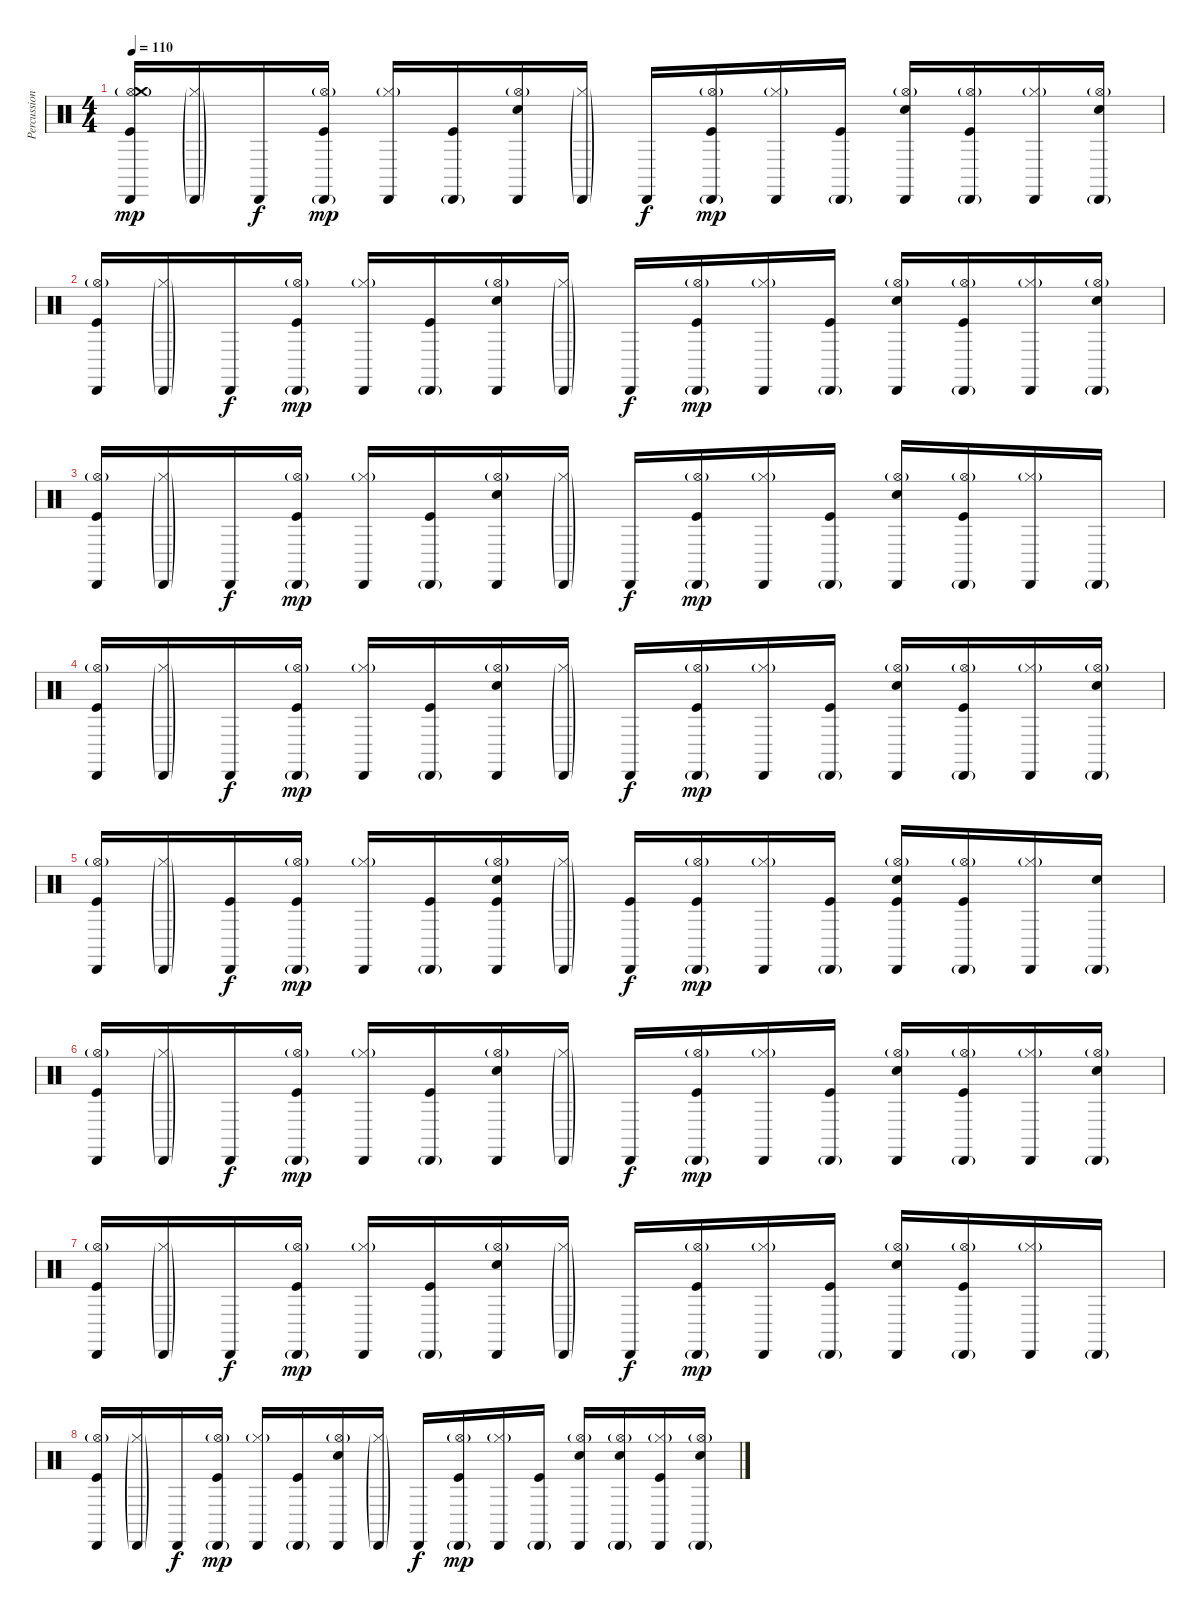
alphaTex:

\track ("Percussion" "Percussion") {instrument percussion}
\staff {score}
\articulation defaults
\ts (4 4)
\tempo 110
\clef neutral
\ks c
("Cabasa (hit)" "Hi-Hat (open)"{g} "Crash medium (hit)" "Kick (hit)").16{dy mp} ("Cabasa (hit)"{g} "Hi-Hat (closed)"{g}).16 "Cabasa (hit)".16{dy f} ("Cabasa (hit)"{g} "Hi-Hat (open)"{g} "Kick (hit)").16{dy mp} ("Cabasa (hit)" "Hi-Hat (closed)"{g}).16 ("Cabasa (hit)"{g} "Kick (hit)").16 ("Cabasa (hit)" "Hi-Hat (open)"{g} "Snare (hit) 2").16 ("Cabasa (hit)"{g} "Hi-Hat (closed)"{g}).16 "Cabasa (hit)".16{dy f} ("Cabasa (hit)"{g} "Hi-Hat (open)"{g} "Kick (hit)").16{dy mp} ("Cabasa (hit)" "Hi-Hat (closed)"{g}).16 ("Cabasa (hit)"{g} "Kick (hit)").16 ("Cabasa (hit)" "Hi-Hat (open)"{g} "Snare (hit) 2").16 ("Cabasa (hit)"{g} "Hi-Hat (open)"{g} "Kick (hit)").16 ("Cabasa (hit)" "Hi-Hat (closed)"{g}).16 ("Cabasa (hit)"{g} "Hi-Hat (open)"{g} "Snare (hit) 2").16 |
("Cabasa (hit)" "Hi-Hat (open)"{g} "Kick (hit)").16 ("Cabasa (hit)"{g} "Hi-Hat (closed)"{g}).16 "Cabasa (hit)".16{dy f} ("Cabasa (hit)"{g} "Hi-Hat (open)"{g} "Kick (hit)").16{dy mp} ("Cabasa (hit)" "Hi-Hat (closed)"{g}).16 ("Cabasa (hit)"{g} "Kick (hit)").16 ("Cabasa (hit)" "Hi-Hat (open)"{g} "Snare (hit) 2").16 ("Cabasa (hit)"{g} "Hi-Hat (closed)"{g}).16 "Cabasa (hit)".16{dy f} ("Cabasa (hit)"{g} "Hi-Hat (open)"{g} "Kick (hit)").16{dy mp} ("Cabasa (hit)" "Hi-Hat (closed)"{g}).16 ("Cabasa (hit)"{g} "Kick (hit)").16 ("Cabasa (hit)" "Hi-Hat (open)"{g} "Snare (hit) 2").16 ("Cabasa (hit)"{g} "Hi-Hat (open)"{g} "Kick (hit)").16 ("Cabasa (hit)" "Hi-Hat (closed)"{g}).16 ("Cabasa (hit)"{g} "Hi-Hat (open)"{g} "Snare (hit) 2").16 |
("Cabasa (hit)" "Hi-Hat (open)"{g} "Kick (hit)").16 ("Cabasa (hit)"{g} "Hi-Hat (closed)"{g}).16 "Cabasa (hit)".16{dy f} ("Cabasa (hit)"{g} "Hi-Hat (open)"{g} "Kick (hit)").16{dy mp} ("Cabasa (hit)" "Hi-Hat (closed)"{g}).16 ("Cabasa (hit)"{g} "Kick (hit)").16 ("Cabasa (hit)" "Hi-Hat (open)"{g} "Snare (hit) 2").16 ("Cabasa (hit)"{g} "Hi-Hat (closed)"{g}).16 "Cabasa (hit)".16{dy f} ("Cabasa (hit)"{g} "Hi-Hat (open)"{g} "Kick (hit)").16{dy mp} ("Cabasa (hit)" "Hi-Hat (closed)"{g}).16 ("Cabasa (hit)"{g} "Kick (hit)").16 ("Cabasa (hit)" "Hi-Hat (open)"{g} "Snare (hit) 2").16 ("Cabasa (hit)"{g} "Hi-Hat (open)"{g} "Kick (hit)").16 ("Cabasa (hit)" "Hi-Hat (closed)"{g}).16 "Cabasa (hit)"{g}.16 |
("Cabasa (hit)" "Hi-Hat (open)"{g} "Kick (hit)").16 ("Cabasa (hit)"{g} "Hi-Hat (closed)"{g}).16 "Cabasa (hit)".16{dy f} ("Cabasa (hit)"{g} "Hi-Hat (open)"{g} "Kick (hit)").16{dy mp} ("Cabasa (hit)" "Hi-Hat (closed)"{g}).16 ("Cabasa (hit)"{g} "Kick (hit)").16 ("Cabasa (hit)" "Hi-Hat (open)"{g} "Snare (hit) 2").16 ("Cabasa (hit)"{g} "Hi-Hat (closed)"{g}).16 "Cabasa (hit)".16{dy f} ("Cabasa (hit)"{g} "Hi-Hat (open)"{g} "Kick (hit)").16{dy mp} ("Cabasa (hit)" "Hi-Hat (closed)"{g}).16 ("Cabasa (hit)"{g} "Kick (hit)").16 ("Cabasa (hit)" "Hi-Hat (open)"{g} "Snare (hit) 2").16 ("Cabasa (hit)"{g} "Hi-Hat (open)"{g} "Kick (hit)").16 ("Cabasa (hit)" "Hi-Hat (closed)"{g}).16 ("Cabasa (hit)"{g} "Hi-Hat (open)"{g} "Snare (hit) 2").16 |
("Cabasa (hit)" "Hi-Hat (open)"{g} "Kick (hit)").16 ("Cabasa (hit)"{g} "Hi-Hat (closed)"{g}).16 ("Cabasa (hit)" "Kick (hit)").16{dy f} ("Cabasa (hit)"{g} "Hi-Hat (open)"{g} "Kick (hit)").16{dy mp} ("Cabasa (hit)" "Hi-Hat (closed)"{g}).16 ("Cabasa (hit)"{g} "Kick (hit)").16 ("Cabasa (hit)" "Hi-Hat (open)"{g} "Snare (hit) 2" "Kick (hit)").16 ("Cabasa (hit)"{g} "Hi-Hat (closed)"{g}).16 ("Cabasa (hit)" "Kick (hit)").16{dy f} ("Cabasa (hit)"{g} "Hi-Hat (open)"{g} "Kick (hit)").16{dy mp} ("Cabasa (hit)" "Hi-Hat (closed)"{g}).16 ("Cabasa (hit)"{g} "Kick (hit)").16 ("Cabasa (hit)" "Hi-Hat (open)"{g} "Snare (hit) 2" "Kick (hit)").16 ("Cabasa (hit)"{g} "Hi-Hat (open)"{g} "Kick (hit)").16 ("Cabasa (hit)" "Hi-Hat (closed)"{g}).16 ("Cabasa (hit)"{g} "Snare (hit) 2").16 |
("Cabasa (hit)" "Hi-Hat (open)"{g} "Kick (hit)").16 ("Cabasa (hit)"{g} "Hi-Hat (closed)"{g}).16 "Cabasa (hit)".16{dy f} ("Cabasa (hit)"{g} "Hi-Hat (open)"{g} "Kick (hit)").16{dy mp} ("Cabasa (hit)" "Hi-Hat (closed)"{g}).16 ("Cabasa (hit)"{g} "Kick (hit)").16 ("Cabasa (hit)" "Hi-Hat (open)"{g} "Snare (hit) 2").16 ("Cabasa (hit)"{g} "Hi-Hat (closed)"{g}).16 "Cabasa (hit)".16{dy f} ("Cabasa (hit)"{g} "Hi-Hat (open)"{g} "Kick (hit)").16{dy mp} ("Cabasa (hit)" "Hi-Hat (closed)"{g}).16 ("Cabasa (hit)"{g} "Kick (hit)").16 ("Cabasa (hit)" "Hi-Hat (open)"{g} "Snare (hit) 2").16 ("Cabasa (hit)"{g} "Hi-Hat (open)"{g} "Kick (hit)").16 ("Cabasa (hit)" "Hi-Hat (closed)"{g}).16 ("Cabasa (hit)"{g} "Hi-Hat (open)"{g} "Snare (hit) 2").16 |
("Cabasa (hit)" "Hi-Hat (open)"{g} "Kick (hit)").16 ("Cabasa (hit)"{g} "Hi-Hat (closed)"{g}).16 "Cabasa (hit)".16{dy f} ("Cabasa (hit)"{g} "Hi-Hat (open)"{g} "Kick (hit)").16{dy mp} ("Cabasa (hit)" "Hi-Hat (closed)"{g}).16 ("Cabasa (hit)"{g} "Kick (hit)").16 ("Cabasa (hit)" "Hi-Hat (open)"{g} "Snare (hit) 2").16 ("Cabasa (hit)"{g} "Hi-Hat (closed)"{g}).16 "Cabasa (hit)".16{dy f} ("Cabasa (hit)"{g} "Hi-Hat (open)"{g} "Kick (hit)").16{dy mp} ("Cabasa (hit)" "Hi-Hat (closed)"{g}).16 ("Cabasa (hit)"{g} "Kick (hit)").16 ("Cabasa (hit)" "Hi-Hat (open)"{g} "Snare (hit) 2").16 ("Cabasa (hit)"{g} "Hi-Hat (open)"{g} "Kick (hit)").16 ("Cabasa (hit)" "Hi-Hat (closed)"{g}).16 "Cabasa (hit)"{g}.16 |
("Cabasa (hit)" "Hi-Hat (open)"{g} "Kick (hit)").16 ("Cabasa (hit)"{g} "Hi-Hat (closed)"{g}).16 "Cabasa (hit)".16{dy f} ("Cabasa (hit)"{g} "Hi-Hat (open)"{g} "Kick (hit)").16{dy mp} ("Cabasa (hit)" "Hi-Hat (closed)"{g}).16 ("Cabasa (hit)"{g} "Kick (hit)").16 ("Cabasa (hit)" "Hi-Hat (open)"{g} "Snare (hit) 2").16 ("Cabasa (hit)"{g} "Hi-Hat (closed)"{g}).16 "Cabasa (hit)".16{dy f} ("Cabasa (hit)"{g} "Hi-Hat (open)"{g} "Kick (hit)").16{dy mp} ("Cabasa (hit)" "Hi-Hat (closed)"{g}).16 ("Cabasa (hit)"{g} "Kick (hit)").16 ("Cabasa (hit)" "Hi-Hat (open)"{g} "Snare (hit) 2").16 ("Cabasa (hit)"{g} "Hi-Hat (open)"{g} "Snare (hit) 2").16 ("Cabasa (hit)" "Hi-Hat (closed)"{g} "Kick (hit)").16 ("Cabasa (hit)"{g} "Hi-Hat (open)"{g} "Snare (hit) 2").16
